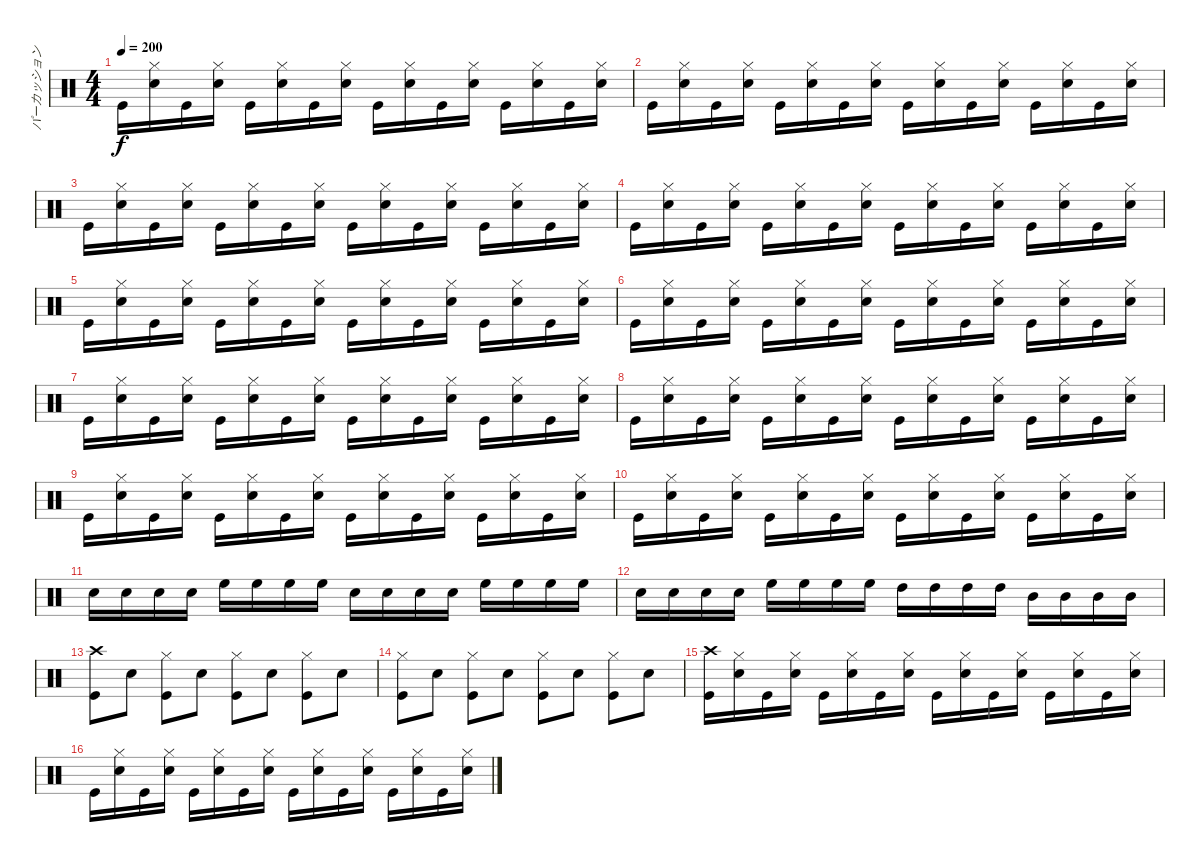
\track ("パーカッション" "パーカッション") {instrument percussion}
\staff {score}
\articulation defaults
\ts (4 4)
\tempo 200
\clef neutral
\ks c "Kick (hit)".16{dy f}
("Hi-Hat (closed)" "Snare (hit) 2").16 "Kick (hit)".16 ("Hi-Hat (closed)" "Snare (hit) 2").16 "Kick (hit)".16 ("Hi-Hat (closed)" "Snare (hit) 2").16 "Kick (hit)".16 ("Hi-Hat (closed)" "Snare (hit) 2").16 "Kick (hit)".16 ("Hi-Hat (closed)" "Snare (hit) 2").16 "Kick (hit)".16 ("Hi-Hat (closed)" "Snare (hit) 2").16 "Kick (hit)".16 ("Hi-Hat (closed)" "Snare (hit) 2").16 "Kick (hit)".16 ("Hi-Hat (closed)" "Snare (hit) 2").16 |
"Kick (hit)".16 ("Hi-Hat (closed)" "Snare (hit) 2").16 "Kick (hit)".16 ("Hi-Hat (closed)" "Snare (hit) 2").16 "Kick (hit)".16 ("Hi-Hat (closed)" "Snare (hit) 2").16 "Kick (hit)".16 ("Hi-Hat (closed)" "Snare (hit) 2").16 "Kick (hit)".16 ("Hi-Hat (closed)" "Snare (hit) 2").16 "Kick (hit)".16 ("Hi-Hat (closed)" "Snare (hit) 2").16 "Kick (hit)".16 ("Hi-Hat (closed)" "Snare (hit) 2").16 "Kick (hit)".16 ("Hi-Hat (closed)" "Snare (hit) 2").16 |
"Kick (hit)".16 ("Hi-Hat (closed)" "Snare (hit) 2").16 "Kick (hit)".16 ("Hi-Hat (closed)" "Snare (hit) 2").16 "Kick (hit)".16 ("Hi-Hat (closed)" "Snare (hit) 2").16 "Kick (hit)".16 ("Hi-Hat (closed)" "Snare (hit) 2").16 "Kick (hit)".16 ("Hi-Hat (closed)" "Snare (hit) 2").16 "Kick (hit)".16 ("Hi-Hat (closed)" "Snare (hit) 2").16 "Kick (hit)".16 ("Hi-Hat (closed)" "Snare (hit) 2").16 "Kick (hit)".16 ("Hi-Hat (closed)" "Snare (hit) 2").16 |
"Kick (hit)".16 ("Hi-Hat (closed)" "Snare (hit) 2").16 "Kick (hit)".16 ("Hi-Hat (closed)" "Snare (hit) 2").16 "Kick (hit)".16 ("Hi-Hat (closed)" "Snare (hit) 2").16 "Kick (hit)".16 ("Hi-Hat (closed)" "Snare (hit) 2").16 "Kick (hit)".16 ("Hi-Hat (closed)" "Snare (hit) 2").16 "Kick (hit)".16 ("Hi-Hat (closed)" "Snare (hit) 2").16 "Kick (hit)".16 ("Hi-Hat (closed)" "Snare (hit) 2").16 "Kick (hit)".16 ("Hi-Hat (closed)" "Snare (hit) 2").16 |
"Kick (hit)".16 ("Hi-Hat (closed)" "Snare (hit) 2").16 "Kick (hit)".16 ("Hi-Hat (closed)" "Snare (hit) 2").16 "Kick (hit)".16 ("Hi-Hat (closed)" "Snare (hit) 2").16 "Kick (hit)".16 ("Hi-Hat (closed)" "Snare (hit) 2").16 "Kick (hit)".16 ("Hi-Hat (closed)" "Snare (hit) 2").16 "Kick (hit)".16 ("Hi-Hat (closed)" "Snare (hit) 2").16 "Kick (hit)".16 ("Hi-Hat (closed)" "Snare (hit) 2").16 "Kick (hit)".16 ("Hi-Hat (closed)" "Snare (hit) 2").16 |
"Kick (hit)".16 ("Hi-Hat (closed)" "Snare (hit) 2").16 "Kick (hit)".16 ("Hi-Hat (closed)" "Snare (hit) 2").16 "Kick (hit)".16 ("Hi-Hat (closed)" "Snare (hit) 2").16 "Kick (hit)".16 ("Hi-Hat (closed)" "Snare (hit) 2").16 "Kick (hit)".16 ("Hi-Hat (closed)" "Snare (hit) 2").16 "Kick (hit)".16 ("Hi-Hat (closed)" "Snare (hit) 2").16 "Kick (hit)".16 ("Hi-Hat (closed)" "Snare (hit) 2").16 "Kick (hit)".16 ("Hi-Hat (closed)" "Snare (hit) 2").16 |
"Kick (hit)".16 ("Hi-Hat (closed)" "Snare (hit) 2").16 "Kick (hit)".16 ("Hi-Hat (closed)" "Snare (hit) 2").16 "Kick (hit)".16 ("Hi-Hat (closed)" "Snare (hit) 2").16 "Kick (hit)".16 ("Hi-Hat (closed)" "Snare (hit) 2").16 "Kick (hit)".16 ("Hi-Hat (closed)" "Snare (hit) 2").16 "Kick (hit)".16 ("Hi-Hat (closed)" "Snare (hit) 2").16 "Kick (hit)".16 ("Hi-Hat (closed)" "Snare (hit) 2").16 "Kick (hit)".16 ("Hi-Hat (closed)" "Snare (hit) 2").16 |
"Kick (hit)".16 ("Hi-Hat (closed)" "Snare (hit) 2").16 "Kick (hit)".16 ("Hi-Hat (closed)" "Snare (hit) 2").16 "Kick (hit)".16 ("Hi-Hat (closed)" "Snare (hit) 2").16 "Kick (hit)".16 ("Hi-Hat (closed)" "Snare (hit) 2").16 "Kick (hit)".16 ("Hi-Hat (closed)" "Snare (hit) 2").16 "Kick (hit)".16 ("Hi-Hat (closed)" "Snare (hit) 2").16 "Kick (hit)".16 ("Hi-Hat (closed)" "Snare (hit) 2").16 "Kick (hit)".16 ("Hi-Hat (closed)" "Snare (hit) 2").16 |
"Kick (hit)".16 ("Hi-Hat (closed)" "Snare (hit) 2").16 "Kick (hit)".16 ("Hi-Hat (closed)" "Snare (hit) 2").16 "Kick (hit)".16 ("Hi-Hat (closed)" "Snare (hit) 2").16 "Kick (hit)".16 ("Hi-Hat (closed)" "Snare (hit) 2").16 "Kick (hit)".16 ("Hi-Hat (closed)" "Snare (hit) 2").16 "Kick (hit)".16 ("Hi-Hat (closed)" "Snare (hit) 2").16 "Kick (hit)".16 ("Hi-Hat (closed)" "Snare (hit) 2").16 "Kick (hit)".16 ("Hi-Hat (closed)" "Snare (hit) 2").16 |
"Kick (hit)".16 ("Hi-Hat (closed)" "Snare (hit) 2").16 "Kick (hit)".16 ("Hi-Hat (closed)" "Snare (hit) 2").16 "Kick (hit)".16 ("Hi-Hat (closed)" "Snare (hit) 2").16 "Kick (hit)".16 ("Hi-Hat (closed)" "Snare (hit) 2").16 "Kick (hit)".16 ("Hi-Hat (closed)" "Snare (hit) 2").16 "Kick (hit)".16 ("Hi-Hat (closed)" "Snare (hit) 2").16 "Kick (hit)".16 ("Hi-Hat (closed)" "Snare (hit) 2").16 "Kick (hit)".16 ("Hi-Hat (closed)" "Snare (hit) 2").16 |
"Snare (hit) 2".16 "Snare (hit) 2".16 "Snare (hit) 2".16 "Snare (hit) 2".16 "High Floor Tom (hit)".16 "High Floor Tom (hit)".16 "High Floor Tom (hit)".16 "High Floor Tom (hit)".16 "Snare (hit) 2".16 "Snare (hit) 2".16 "Snare (hit) 2".16 "Snare (hit) 2".16 "High Floor Tom (hit)".16 "High Floor Tom (hit)".16 "High Floor Tom (hit)".16 "High Floor Tom (hit)".16 |
"Snare (hit) 2".16 "Snare (hit) 2".16 "Snare (hit) 2".16 "Snare (hit) 2".16 "High Floor Tom (hit)".16 "High Floor Tom (hit)".16 "High Floor Tom (hit)".16 "High Floor Tom (hit)".16 "High Tom (hit)".16 "High Tom (hit)".16 "High Tom (hit)".16 "High Tom (hit)".16 "Mid Tom (hit)".16 "Mid Tom (hit)".16 "Mid Tom (hit)".16 "Mid Tom (hit)".16 |
("Crash high (hit)" "Kick (hit)").8 "Snare (hit) 2".8 ("Hi-Hat (closed)" "Kick (hit)").8 "Snare (hit) 2".8 ("Hi-Hat (closed)" "Kick (hit)").8 "Snare (hit) 2".8 ("Hi-Hat (closed)" "Kick (hit)").8 "Snare (hit) 2".8 |
("Hi-Hat (closed)" "Kick (hit)").8 "Snare (hit) 2".8 ("Hi-Hat (closed)" "Kick (hit)").8 "Snare (hit) 2".8 ("Hi-Hat (closed)" "Kick (hit)").8 "Snare (hit) 2".8 ("Hi-Hat (closed)" "Kick (hit)").8 "Snare (hit) 2".8 |
("Crash high (hit)" "Kick (hit)").16 ("Hi-Hat (closed)" "Snare (hit) 2").16 "Kick (hit)".16 ("Hi-Hat (closed)" "Snare (hit) 2").16 "Kick (hit)".16 ("Hi-Hat (closed)" "Snare (hit) 2").16 "Kick (hit)".16 ("Hi-Hat (closed)" "Snare (hit) 2").16 "Kick (hit)".16 ("Hi-Hat (closed)" "Snare (hit) 2").16 "Kick (hit)".16 ("Hi-Hat (closed)" "Snare (hit) 2").16 "Kick (hit)".16 ("Hi-Hat (closed)" "Snare (hit) 2").16 "Kick (hit)".16 ("Hi-Hat (closed)" "Snare (hit) 2").16 |
"Kick (hit)".16 ("Hi-Hat (closed)" "Snare (hit) 2").16 "Kick (hit)".16 ("Hi-Hat (closed)" "Snare (hit) 2").16 "Kick (hit)".16 ("Hi-Hat (closed)" "Snare (hit) 2").16 "Kick (hit)".16 ("Hi-Hat (closed)" "Snare (hit) 2").16 "Kick (hit)".16 ("Hi-Hat (closed)" "Snare (hit) 2").16 "Kick (hit)".16 ("Hi-Hat (closed)" "Snare (hit) 2").16 "Kick (hit)".16 ("Hi-Hat (closed)" "Snare (hit) 2").16 "Kick (hit)".16 ("Hi-Hat (closed)" "Snare (hit) 2").16
